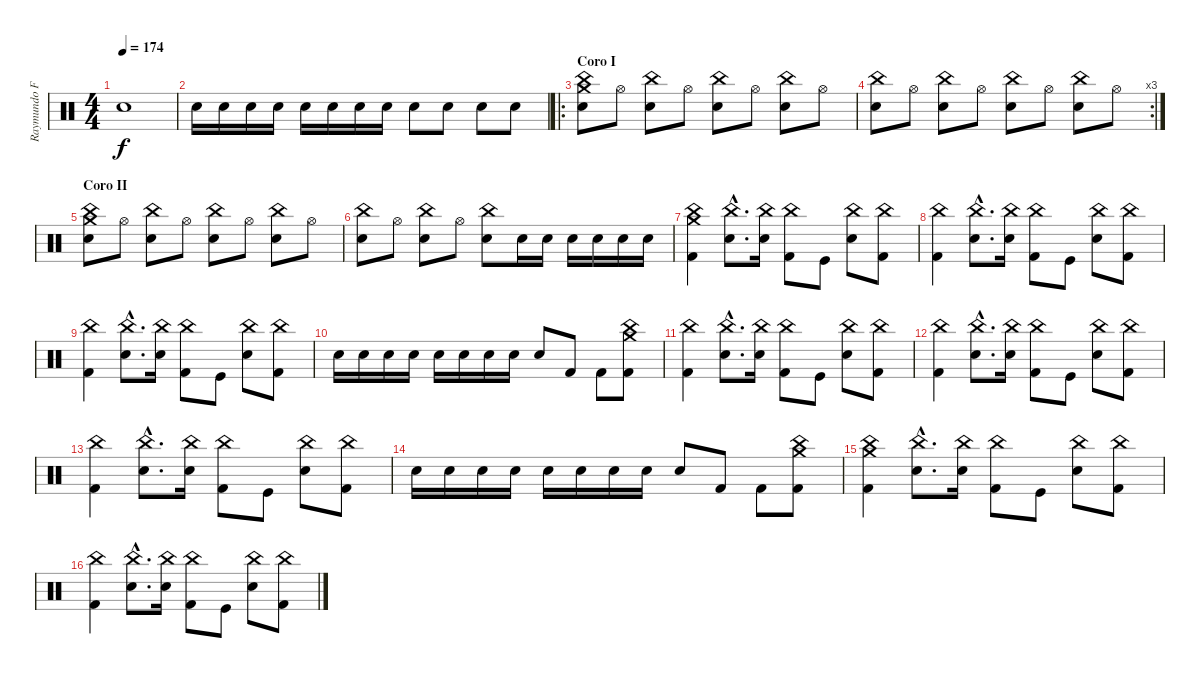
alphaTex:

\track ("Raymundo Fajardo (Batería)" "Raymundo F") {instrument percussion}
\staff {score}
\articulation defaults
\ts (4 4)
\tempo 174
\clef neutral
\ks c "Snare (hit) 2".1{dy f}
|
"Snare (hit) 2".16 "Snare (hit) 2".16 "Snare (hit) 2".16 "Snare (hit) 2".16 "Snare (hit) 2".16 "Snare (hit) 2".16 "Snare (hit) 2".16 "Snare (hit) 2".16 "Snare (hit) 2".8 "Snare (hit) 2".8 "Snare (hit) 2".8 "Snare (hit) 2".8 |
\ro
\section ("" "Coro I")
("Crash medium (hit)" "Snare (hit) 2" "China (hit)").8 "Hi-Hat (open)".8 ("Snare (hit) 2" "China (hit)").8 "Hi-Hat (open)".8 ("Snare (hit) 2" "China (hit)").8 "Hi-Hat (open)".8 ("Snare (hit) 2" "China (hit)").8 "Hi-Hat (open)".8 |
\rc 3
("Snare (hit) 2" "China (hit)").8 "Hi-Hat (open)".8 ("Snare (hit) 2" "China (hit)").8 "Hi-Hat (open)".8 ("Snare (hit) 2" "China (hit)").8 "Hi-Hat (open)".8 ("Snare (hit) 2" "China (hit)").8 "Hi-Hat (open)".8 |
\section ("" "Coro II")
("Crash medium (hit)" "Snare (hit) 2" "China (hit)").8 "Hi-Hat (open)".8 ("Snare (hit) 2" "China (hit)").8 "Hi-Hat (open)".8 ("Snare (hit) 2" "China (hit)").8 "Hi-Hat (open)".8 ("Snare (hit) 2" "China (hit)").8 "Hi-Hat (open)".8 |
("Snare (hit) 2" "China (hit)").8 "Hi-Hat (open)".8 ("Snare (hit) 2" "China (hit)").8 "Hi-Hat (open)".8 ("Snare (hit) 2" "China (hit)").8 "Snare (hit) 2".16 "Snare (hit) 2".16 "Snare (hit) 2".16 "Snare (hit) 2".16 "Snare (hit) 2".16 "Snare (hit) 2".16 |
("Crash medium (hit)" "Kick (hit) 2" "China (hit)").4 ("Snare (hit) 2"{hac} "China (hit)"{hac}).8{d} ("Snare (hit) 2" "China (hit)").16 ("Kick (hit) 2" "China (hit)").8 "Kick (hit)".8 ("China (hit)" "Snare (hit) 2").8 ("Kick (hit) 2" "China (hit)").8 |
("Kick (hit) 2" "China (hit)").4 ("Snare (hit) 2"{hac} "China (hit)"{hac}).8{d} ("Snare (hit) 2" "China (hit)").16 ("Kick (hit) 2" "China (hit)").8 "Kick (hit)".8 ("China (hit)" "Snare (hit) 2").8 ("Kick (hit) 2" "China (hit)").8 |
("Kick (hit) 2" "China (hit)").4 ("Snare (hit) 2"{hac} "China (hit)"{hac}).8{d} ("Snare (hit) 2" "China (hit)").16 ("Kick (hit) 2" "China (hit)").8 "Kick (hit)".8 ("China (hit)" "Snare (hit) 2").8 ("Kick (hit) 2" "China (hit)").8 |
"Snare (hit) 2".16 "Snare (hit) 2".16 "Snare (hit) 2".16 "Snare (hit) 2".16 "Snare (hit) 2".16 "Snare (hit) 2".16 "Snare (hit) 2".16 "Snare (hit) 2".16 "Snare (hit) 2".8 "Kick (hit) 2".8 "Kick (hit) 2".8 ("Crash medium (hit)" "Kick (hit) 2" "China (hit)").8 |
("Kick (hit) 2" "China (hit)").4 ("Snare (hit) 2"{hac} "China (hit)"{hac}).8{d} ("Snare (hit) 2" "China (hit)").16 ("Kick (hit) 2" "China (hit)").8 "Kick (hit)".8 ("China (hit)" "Snare (hit) 2").8 ("Kick (hit) 2" "China (hit)").8 |
("Kick (hit) 2" "China (hit)").4 ("Snare (hit) 2"{hac} "China (hit)"{hac}).8{d} ("Snare (hit) 2" "China (hit)").16 ("Kick (hit) 2" "China (hit)").8 "Kick (hit)".8 ("China (hit)" "Snare (hit) 2").8 ("Kick (hit) 2" "China (hit)").8 |
("Kick (hit) 2" "China (hit)").4 ("Snare (hit) 2"{hac} "China (hit)"{hac}).8{d} ("Snare (hit) 2" "China (hit)").16 ("Kick (hit) 2" "China (hit)").8 "Kick (hit)".8 ("China (hit)" "Snare (hit) 2").8 ("Kick (hit) 2" "China (hit)").8 |
"Snare (hit) 2".16 "Snare (hit) 2".16 "Snare (hit) 2".16 "Snare (hit) 2".16 "Snare (hit) 2".16 "Snare (hit) 2".16 "Snare (hit) 2".16 "Snare (hit) 2".16 "Snare (hit) 2".8 "Kick (hit) 2".8 "Kick (hit) 2".8 ("Crash medium (hit)" "Kick (hit) 2" "China (hit)").8 |
("Crash medium (hit)" "Kick (hit) 2" "China (hit)").4 ("Snare (hit) 2"{hac} "China (hit)"{hac}).8{d} ("Snare (hit) 2" "China (hit)").16 ("Kick (hit) 2" "China (hit)").8 "Kick (hit)".8 ("China (hit)" "Snare (hit) 2").8 ("Kick (hit) 2" "China (hit)").8 |
("Kick (hit) 2" "China (hit)").4 ("Snare (hit) 2"{hac} "China (hit)"{hac}).8{d} ("Snare (hit) 2" "China (hit)").16 ("Kick (hit) 2" "China (hit)").8 "Kick (hit)".8 ("China (hit)" "Snare (hit) 2").8 ("Kick (hit) 2" "China (hit)").8
